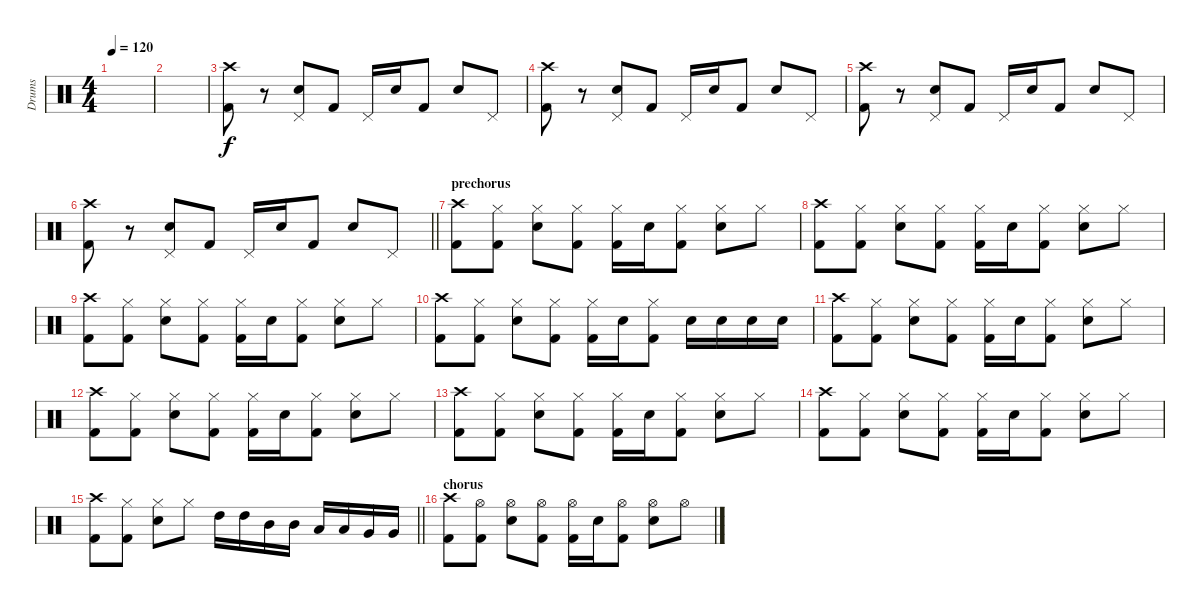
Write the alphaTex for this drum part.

\track ("Drums" "Drums") {instrument percussion}
\staff {score}
\articulation defaults
\ts (4 4)
\tempo 120
\clef neutral
\ks c
|
|
("Crash high (hit)" "Kick (hit) 2").8 r.8 ("Pedal Hi-Hat (hit)" "Snare (hit) 2").8 "Kick (hit) 2".8 "Pedal Hi-Hat (hit)".16 "Snare (hit) 2".16 "Kick (hit) 2".8 "Snare (hit) 2".8 "Pedal Hi-Hat (hit)".8 |
("Crash high (hit)" "Kick (hit) 2").8 r.8 ("Pedal Hi-Hat (hit)" "Snare (hit) 2").8 "Kick (hit) 2".8 "Pedal Hi-Hat (hit)".16 "Snare (hit) 2".16 "Kick (hit) 2".8 "Snare (hit) 2".8 "Pedal Hi-Hat (hit)".8 |
("Crash high (hit)" "Kick (hit) 2").8 r.8 ("Pedal Hi-Hat (hit)" "Snare (hit) 2").8 "Kick (hit) 2".8 "Pedal Hi-Hat (hit)".16 "Snare (hit) 2".16 "Kick (hit) 2".8 "Snare (hit) 2".8 "Pedal Hi-Hat (hit)".8 |
\barLineRight lightlight
("Crash high (hit)" "Kick (hit) 2").8 r.8 ("Pedal Hi-Hat (hit)" "Snare (hit) 2").8 "Kick (hit) 2".8 "Pedal Hi-Hat (hit)".16 "Snare (hit) 2".16 "Kick (hit) 2".8 "Snare (hit) 2".8 "Pedal Hi-Hat (hit)".8 |
\section ("" "prechorus")
("Crash high (hit)" "Kick (hit) 2").8 ("Hi-Hat (closed)" "Kick (hit) 2").8 ("Hi-Hat (closed)" "Snare (hit) 2").8 ("Hi-Hat (closed)" "Kick (hit) 2").8 ("Hi-Hat (closed)" "Kick (hit) 2").16 "Snare (hit) 2".16 ("Hi-Hat (closed)" "Kick (hit) 2").8 ("Hi-Hat (closed)" "Snare (hit) 2").8 "Hi-Hat (closed)".8 |
("Crash high (hit)" "Kick (hit) 2").8 ("Hi-Hat (closed)" "Kick (hit) 2").8 ("Hi-Hat (closed)" "Snare (hit) 2").8 ("Hi-Hat (closed)" "Kick (hit) 2").8 ("Hi-Hat (closed)" "Kick (hit) 2").16 "Snare (hit) 2".16 ("Hi-Hat (closed)" "Kick (hit) 2").8 ("Hi-Hat (closed)" "Snare (hit) 2").8 "Hi-Hat (closed)".8 |
("Crash high (hit)" "Kick (hit) 2").8 ("Hi-Hat (closed)" "Kick (hit) 2").8 ("Hi-Hat (closed)" "Snare (hit) 2").8 ("Hi-Hat (closed)" "Kick (hit) 2").8 ("Hi-Hat (closed)" "Kick (hit) 2").16 "Snare (hit) 2".16 ("Hi-Hat (closed)" "Kick (hit) 2").8 ("Hi-Hat (closed)" "Snare (hit) 2").8 "Hi-Hat (closed)".8 |
("Crash high (hit)" "Kick (hit) 2").8 ("Hi-Hat (closed)" "Kick (hit) 2").8 ("Hi-Hat (closed)" "Snare (hit) 2").8 ("Hi-Hat (closed)" "Kick (hit) 2").8 ("Hi-Hat (closed)" "Kick (hit) 2").16 "Snare (hit) 2".16 ("Hi-Hat (closed)" "Kick (hit) 2").8 "Snare (hit) 2".16 "Snare (hit) 2".16 "Snare (hit) 2".16 "Snare (hit) 2".16 |
("Crash high (hit)" "Kick (hit) 2").8 ("Hi-Hat (closed)" "Kick (hit) 2").8 ("Hi-Hat (closed)" "Snare (hit) 2").8 ("Hi-Hat (closed)" "Kick (hit) 2").8 ("Hi-Hat (closed)" "Kick (hit) 2").16 "Snare (hit) 2".16 ("Hi-Hat (closed)" "Kick (hit) 2").8 ("Hi-Hat (closed)" "Snare (hit) 2").8 "Hi-Hat (closed)".8 |
("Crash high (hit)" "Kick (hit) 2").8 ("Hi-Hat (closed)" "Kick (hit) 2").8 ("Hi-Hat (closed)" "Snare (hit) 2").8 ("Hi-Hat (closed)" "Kick (hit) 2").8 ("Hi-Hat (closed)" "Kick (hit) 2").16 "Snare (hit) 2".16 ("Hi-Hat (closed)" "Kick (hit) 2").8 ("Hi-Hat (closed)" "Snare (hit) 2").8 "Hi-Hat (closed)".8 |
("Crash high (hit)" "Kick (hit) 2").8 ("Hi-Hat (closed)" "Kick (hit) 2").8 ("Hi-Hat (closed)" "Snare (hit) 2").8 ("Hi-Hat (closed)" "Kick (hit) 2").8 ("Hi-Hat (closed)" "Kick (hit) 2").16 "Snare (hit) 2".16 ("Hi-Hat (closed)" "Kick (hit) 2").8 ("Hi-Hat (closed)" "Snare (hit) 2").8 "Hi-Hat (closed)".8 |
("Crash high (hit)" "Kick (hit) 2").8 ("Hi-Hat (closed)" "Kick (hit) 2").8 ("Hi-Hat (closed)" "Snare (hit) 2").8 ("Hi-Hat (closed)" "Kick (hit) 2").8 ("Hi-Hat (closed)" "Kick (hit) 2").16 "Snare (hit) 2".16 ("Hi-Hat (closed)" "Kick (hit) 2").8 ("Hi-Hat (closed)" "Snare (hit) 2").8 "Hi-Hat (closed)".8 |
\barLineRight lightlight
("Crash high (hit)" "Kick (hit) 2").8 ("Hi-Hat (closed)" "Kick (hit) 2").8 ("Hi-Hat (closed)" "Snare (hit) 2").8 "Hi-Hat (closed)".8 "High Tom (hit)".16 "High Tom (hit)".16 "Mid Tom (hit)".16 "Mid Tom (hit)".16 "Low Tom (hit)".16 "Low Tom (hit)".16 "Very Low Tom (hit)".16 "Very Low Tom (hit)".16 |
\section ("" "chorus")
("Crash high (hit)" "Kick (hit) 2").8 ("Hi-Hat (open)" "Kick (hit) 2").8 ("Hi-Hat (open)" "Snare (hit) 2").8 ("Hi-Hat (open)" "Kick (hit) 2").8 ("Hi-Hat (open)" "Kick (hit) 2").16 "Snare (hit) 2".16 ("Hi-Hat (open)" "Kick (hit) 2").8 ("Hi-Hat (open)" "Snare (hit) 2").8 "Hi-Hat (open)".8
